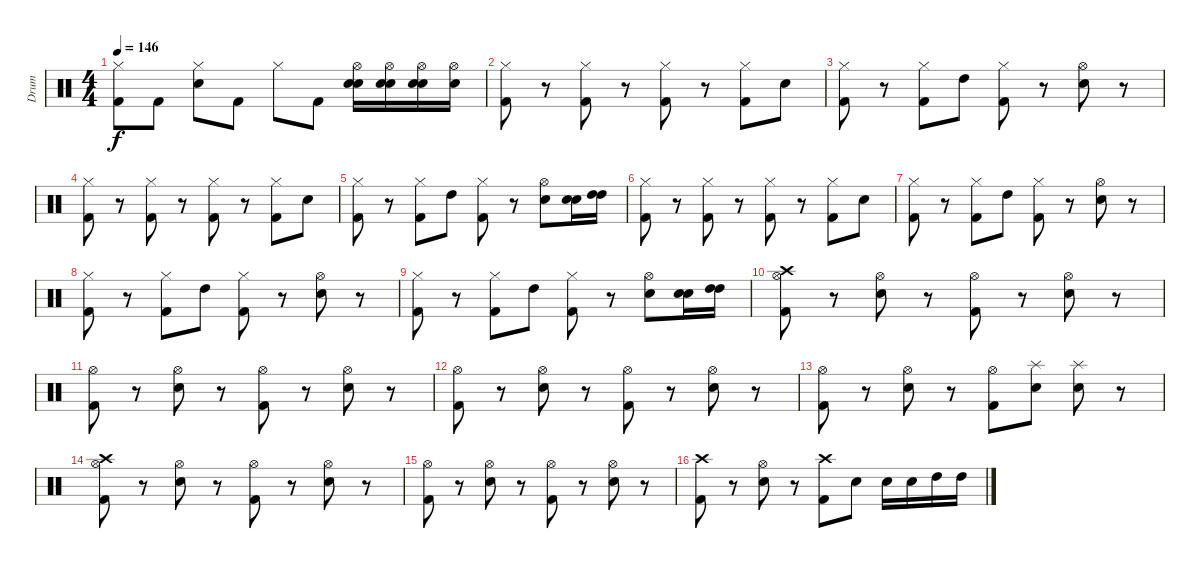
\track ("Drum" "Drum") {instrument percussion}
\staff {score}
\articulation defaults
\ts (4 4)
\tempo 146
\clef neutral
\ks c
("Hi-Hat (closed)" "Kick (hit) 2").8{dy f} "Kick (hit) 2".8 ("Hi-Hat (closed)" "Electric Snare (hit)").8 "Kick (hit) 2".8 "Hi-Hat (closed)".8 "Kick (hit) 2".8 ("Hi-Hat (open)" "Electric Snare (hit)" "Electric Snare (hit)").16 ("Hi-Hat (open)" "Electric Snare (hit)" "Electric Snare (hit)").16 ("Hi-Hat (open)" "Electric Snare (hit)" "Electric Snare (hit)").16 ("Hi-Hat (open)" "Electric Snare (hit)").16 |
("Hi-Hat (closed)" "Kick (hit) 2").8 r.8 ("Hi-Hat (closed)" "Kick (hit) 2").8 r.8 ("Hi-Hat (closed)" "Kick (hit) 2").8 r.8 ("Hi-Hat (closed)" "Kick (hit) 2").8 "Electric Snare (hit)".8 |
("Hi-Hat (closed)" "Kick (hit) 2").8 r.8 ("Hi-Hat (closed)" "Kick (hit) 2").8 "High Tom (hit)".8 ("Hi-Hat (closed)" "Kick (hit) 2").8 r.8 ("Hi-Hat (open)" "Electric Snare (hit)").8 r.8 |
("Hi-Hat (closed)" "Kick (hit) 2").8 r.8 ("Hi-Hat (closed)" "Kick (hit) 2").8 r.8 ("Hi-Hat (closed)" "Kick (hit) 2").8 r.8 ("Hi-Hat (closed)" "Kick (hit) 2").8 "Electric Snare (hit)".8 |
("Hi-Hat (closed)" "Kick (hit) 2").8 r.8 ("Hi-Hat (closed)" "Kick (hit) 2").8 "High Tom (hit)".8 ("Hi-Hat (closed)" "Kick (hit) 2").8 r.8 ("Hi-Hat (open)" "Electric Snare (hit)").8 ("Electric Snare (hit)" "Electric Snare (hit)").16 ("High Tom (hit)" "High Tom (hit)").16 |
("Hi-Hat (closed)" "Kick (hit) 2").8 r.8 ("Hi-Hat (closed)" "Kick (hit) 2").8 r.8 ("Hi-Hat (closed)" "Kick (hit) 2").8 r.8 ("Hi-Hat (closed)" "Kick (hit) 2").8 "Electric Snare (hit)".8 |
("Hi-Hat (closed)" "Kick (hit) 2").8 r.8 ("Hi-Hat (closed)" "Kick (hit) 2").8 "High Tom (hit)".8 ("Hi-Hat (closed)" "Kick (hit) 2").8 r.8 ("Hi-Hat (open)" "Electric Snare (hit)").8 r.8 |
("Hi-Hat (closed)" "Kick (hit) 2").8 r.8 ("Hi-Hat (closed)" "Kick (hit) 2").8 "High Tom (hit)".8 ("Hi-Hat (closed)" "Kick (hit) 2").8 r.8 ("Hi-Hat (open)" "Electric Snare (hit)").8 r.8 |
("Hi-Hat (closed)" "Kick (hit) 2").8 r.8 ("Hi-Hat (closed)" "Kick (hit) 2").8 "High Tom (hit)".8 ("Hi-Hat (closed)" "Kick (hit) 2").8 r.8 ("Hi-Hat (open)" "Electric Snare (hit)").8 ("Electric Snare (hit)" "Electric Snare (hit)").16 ("High Tom (hit)" "High Tom (hit)").16 |
("Crash high (hit)" "Hi-Hat (open)" "Kick (hit) 2").8 r.8 ("Hi-Hat (open)" "Electric Snare (hit)").8 r.8 ("Hi-Hat (open)" "Kick (hit) 2").8 r.8 ("Hi-Hat (open)" "Electric Snare (hit)").8 r.8 |
("Hi-Hat (open)" "Kick (hit) 2").8 r.8 ("Hi-Hat (open)" "Electric Snare (hit)").8 r.8 ("Hi-Hat (open)" "Kick (hit) 2").8 r.8 ("Hi-Hat (open)" "Electric Snare (hit)").8 r.8 |
("Hi-Hat (open)" "Kick (hit) 2").8 r.8 ("Hi-Hat (open)" "Electric Snare (hit)").8 r.8 ("Hi-Hat (open)" "Kick (hit) 2").8 r.8 ("Hi-Hat (open)" "Electric Snare (hit)").8 r.8 |
("Hi-Hat (open)" "Kick (hit) 2").8 r.8 ("Hi-Hat (open)" "Electric Snare (hit)").8 r.8 ("Hi-Hat (open)" "Kick (hit) 2").8 ("Splash (hit)" "Electric Snare (hit)").8 ("Splash (hit)" "Electric Snare (hit)").8 r.8 |
("Crash high (hit)" "Hi-Hat (open)" "Kick (hit) 2").8 r.8 ("Hi-Hat (open)" "Electric Snare (hit)").8 r.8 ("Hi-Hat (open)" "Kick (hit) 2").8 r.8 ("Hi-Hat (open)" "Electric Snare (hit)").8 r.8 |
("Hi-Hat (open)" "Kick (hit) 2").8 r.8 ("Hi-Hat (open)" "Electric Snare (hit)").8 r.8 ("Hi-Hat (open)" "Kick (hit) 2").8 r.8 ("Hi-Hat (open)" "Electric Snare (hit)").8 r.8 |
("Crash high (hit)" "Kick (hit) 2").8 r.8 ("Hi-Hat (open)" "Electric Snare (hit)").8 r.8 ("Crash high (hit)" "Kick (hit) 2").8 "Electric Snare (hit)".8 "Electric Snare (hit)".16 "Electric Snare (hit)".16 "High Tom (hit)".16 "High Tom (hit)".16
